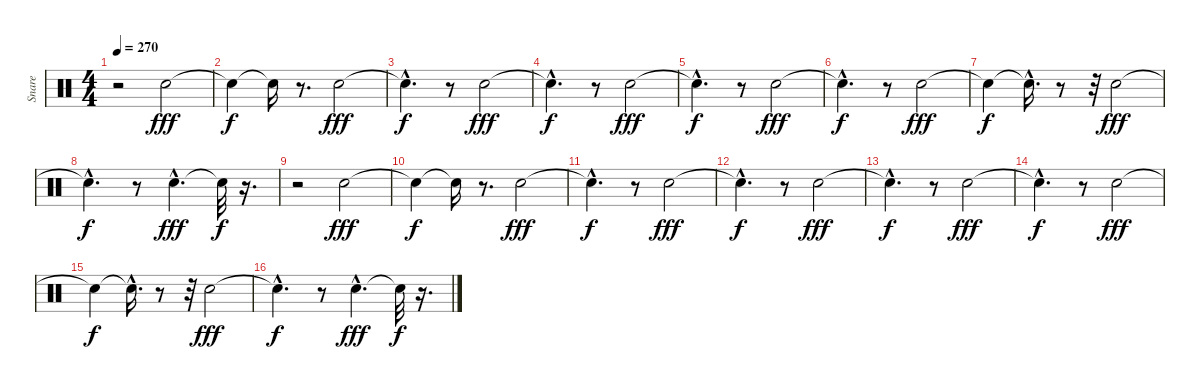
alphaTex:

\track ("Snare" "Snare") {instrument percussion}
\staff {score}
\articulation defaults
\ts (4 4)
\tempo 270
\clef neutral
\ks c
r.2{dy f} "Electric Snare (hit)".2{dy fff} |
"Snare (hit)"{t}.4{dy f} "Snare (hit)"{t}.16 r.8{d} "Electric Snare (hit)".2{dy fff} |
"Snare (hit)"{hac t}.4{d dy f} r.8 "Electric Snare (hit)".2{dy fff} |
"Snare (hit)"{hac t}.4{d dy f} r.8 "Electric Snare (hit)".2{dy fff} |
"Snare (hit)"{hac t}.4{d dy f} r.8 "Electric Snare (hit)".2{dy fff} |
"Snare (hit)"{hac t}.4{d dy f} r.8 "Electric Snare (hit)".2{dy fff} |
"Snare (hit)"{t}.4{dy f} "Snare (hit)"{hac t}.16{d} r.8 r.32 "Electric Snare (hit)".2{dy fff} |
"Snare (hit)"{hac t}.4{d dy f} r.8 "Electric Snare (hit)"{hac}.4{d dy fff} "Snare (hit)"{t}.32{dy f} r.16{d} |
r.2 "Electric Snare (hit)".2{dy fff} |
"Snare (hit)"{t}.4{dy f} "Snare (hit)"{t}.16 r.8{d} "Electric Snare (hit)".2{dy fff} |
"Snare (hit)"{hac t}.4{d dy f} r.8 "Electric Snare (hit)".2{dy fff} |
"Snare (hit)"{hac t}.4{d dy f} r.8 "Electric Snare (hit)".2{dy fff} |
"Snare (hit)"{hac t}.4{d dy f} r.8 "Electric Snare (hit)".2{dy fff} |
"Snare (hit)"{hac t}.4{d dy f} r.8 "Electric Snare (hit)".2{dy fff} |
"Snare (hit)"{t}.4{dy f} "Snare (hit)"{hac t}.16{d} r.8 r.32 "Electric Snare (hit)".2{dy fff} |
"Snare (hit)"{hac t}.4{d dy f} r.8 "Electric Snare (hit)"{hac}.4{d dy fff} "Snare (hit)"{t}.32{dy f} r.16{d}
